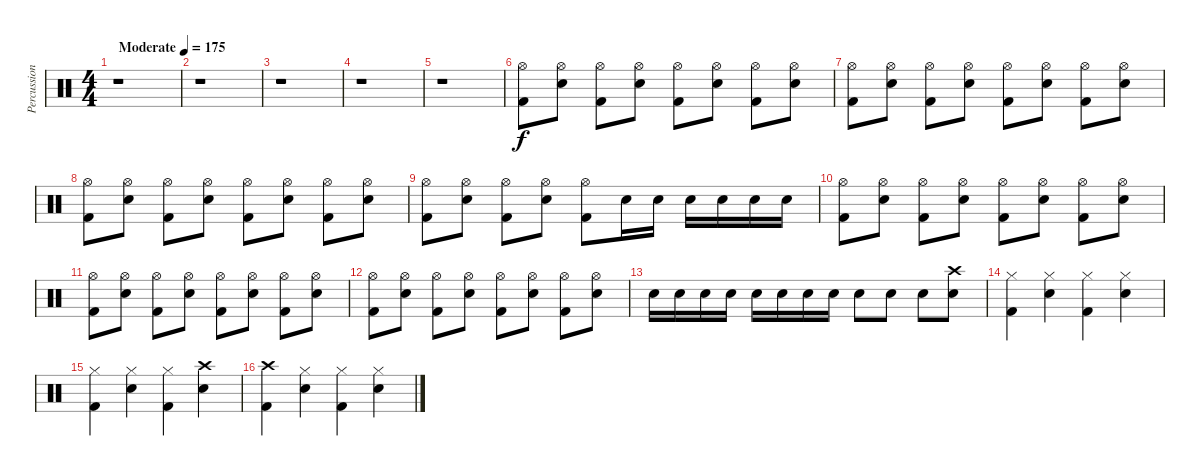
\track ("Percussion" "Percussion") {instrument percussion}
\staff {score}
\articulation defaults
\ts (4 4)
\tempo (175 "Moderate")
\clef neutral
\ks c
r.1{dy f} |
r.1 |
r.1 |
r.1 |
r.1 |
("Hi-Hat (open)" "Kick (hit) 2").8 ("Hi-Hat (open)" "Electric Snare (hit)").8 ("Hi-Hat (open)" "Kick (hit) 2").8 ("Hi-Hat (open)" "Electric Snare (hit)").8 ("Hi-Hat (open)" "Kick (hit) 2").8 ("Hi-Hat (open)" "Electric Snare (hit)").8 ("Hi-Hat (open)" "Kick (hit) 2").8 ("Hi-Hat (open)" "Electric Snare (hit)").8 |
("Hi-Hat (open)" "Kick (hit) 2").8 ("Hi-Hat (open)" "Electric Snare (hit)").8 ("Hi-Hat (open)" "Kick (hit) 2").8 ("Hi-Hat (open)" "Electric Snare (hit)").8 ("Hi-Hat (open)" "Kick (hit) 2").8 ("Hi-Hat (open)" "Electric Snare (hit)").8 ("Hi-Hat (open)" "Kick (hit) 2").8 ("Hi-Hat (open)" "Electric Snare (hit)").8 |
("Hi-Hat (open)" "Kick (hit) 2").8 ("Hi-Hat (open)" "Electric Snare (hit)").8 ("Hi-Hat (open)" "Kick (hit) 2").8 ("Hi-Hat (open)" "Electric Snare (hit)").8 ("Hi-Hat (open)" "Kick (hit) 2").8 ("Hi-Hat (open)" "Electric Snare (hit)").8 ("Hi-Hat (open)" "Kick (hit) 2").8 ("Hi-Hat (open)" "Electric Snare (hit)").8 |
("Hi-Hat (open)" "Kick (hit) 2").8 ("Hi-Hat (open)" "Electric Snare (hit)").8 ("Hi-Hat (open)" "Kick (hit) 2").8 ("Hi-Hat (open)" "Electric Snare (hit)").8 ("Hi-Hat (open)" "Kick (hit) 2").8 "Electric Snare (hit)".16 "Electric Snare (hit)".16 "Electric Snare (hit)".16 "Electric Snare (hit)".16 "Electric Snare (hit)".16 "Electric Snare (hit)".16 |
("Hi-Hat (open)" "Kick (hit) 2").8 ("Hi-Hat (open)" "Electric Snare (hit)").8 ("Hi-Hat (open)" "Kick (hit) 2").8 ("Hi-Hat (open)" "Electric Snare (hit)").8 ("Hi-Hat (open)" "Kick (hit) 2").8 ("Hi-Hat (open)" "Electric Snare (hit)").8 ("Hi-Hat (open)" "Kick (hit) 2").8 ("Hi-Hat (open)" "Electric Snare (hit)").8 |
("Hi-Hat (open)" "Kick (hit) 2").8 ("Hi-Hat (open)" "Electric Snare (hit)").8 ("Hi-Hat (open)" "Kick (hit) 2").8 ("Hi-Hat (open)" "Electric Snare (hit)").8 ("Hi-Hat (open)" "Kick (hit) 2").8 ("Hi-Hat (open)" "Electric Snare (hit)").8 ("Hi-Hat (open)" "Kick (hit) 2").8 ("Hi-Hat (open)" "Electric Snare (hit)").8 |
("Hi-Hat (open)" "Kick (hit) 2").8 ("Hi-Hat (open)" "Electric Snare (hit)").8 ("Hi-Hat (open)" "Kick (hit) 2").8 ("Hi-Hat (open)" "Electric Snare (hit)").8 ("Hi-Hat (open)" "Kick (hit) 2").8 ("Hi-Hat (open)" "Electric Snare (hit)").8 ("Hi-Hat (open)" "Kick (hit) 2").8 ("Hi-Hat (open)" "Electric Snare (hit)").8 |
"Electric Snare (hit)".16 "Electric Snare (hit)".16 "Electric Snare (hit)".16 "Electric Snare (hit)".16 "Electric Snare (hit)".16 "Electric Snare (hit)".16 "Electric Snare (hit)".16 "Electric Snare (hit)".16 "Electric Snare (hit)".8 "Electric Snare (hit)".8 "Electric Snare (hit)".8 ("Crash high (hit)" "Electric Snare (hit)").8 |
("Hi-Hat (closed)" "Kick (hit) 2").4 ("Hi-Hat (closed)" "Electric Snare (hit)").4 ("Hi-Hat (closed)" "Kick (hit) 2").4 ("Hi-Hat (closed)" "Electric Snare (hit)").4 |
("Hi-Hat (closed)" "Kick (hit) 2").4 ("Hi-Hat (closed)" "Electric Snare (hit)").4 ("Hi-Hat (closed)" "Kick (hit) 2").4 ("Crash high (hit)" "Electric Snare (hit)").4 |
("Crash high (hit)" "Kick (hit) 2").4 ("Hi-Hat (closed)" "Electric Snare (hit)").4 ("Hi-Hat (closed)" "Kick (hit) 2").4 ("Hi-Hat (closed)" "Electric Snare (hit)").4
